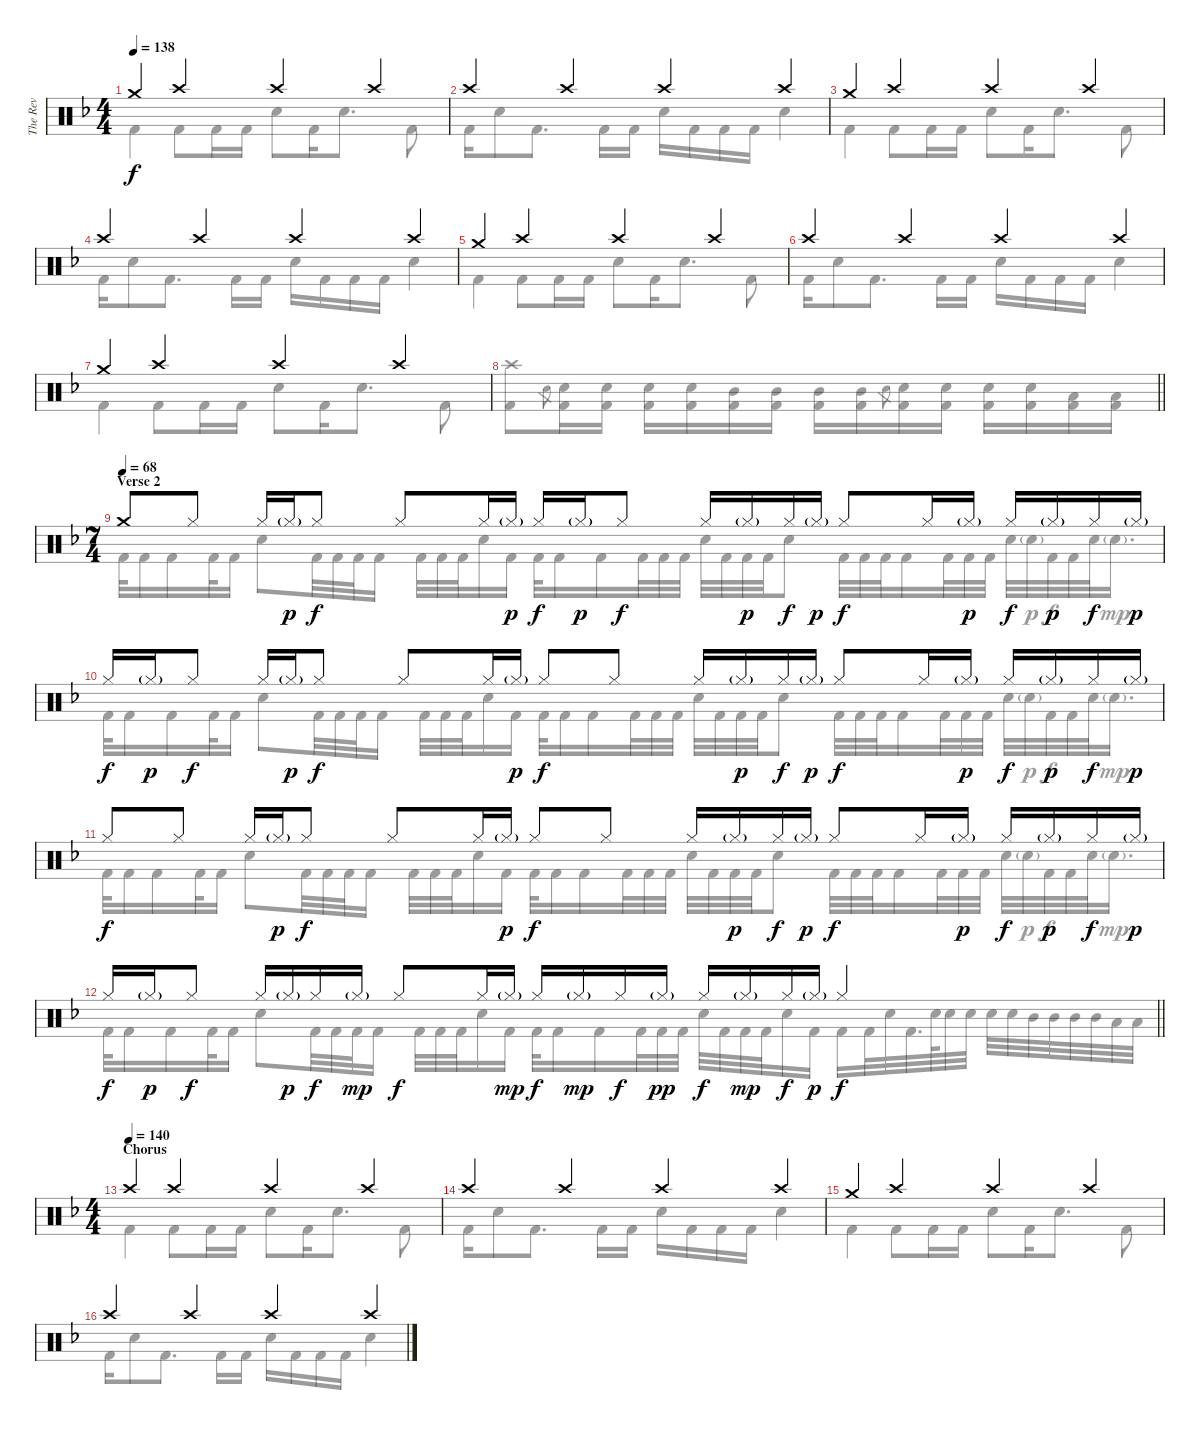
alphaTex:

\track ("The Rev" "The Rev") {instrument percussion}
\staff {score}
\articulation defaults
\voice
\ts (4 4)
\tempo 138
\clef neutral
\ks dminor "Crash medium (hit)".4{dy f} "Crash high (hit)".4 "Crash high (hit)".4 "Crash high (hit)".4
|
"Crash high (hit)".4 "Crash high (hit)".4 "Crash high (hit)".4 "Crash high (hit)".4 |
"Crash medium (hit)".4 "Crash high (hit)".4 "Crash high (hit)".4 "Crash high (hit)".4 |
"Crash high (hit)".4 "Crash high (hit)".4 "Crash high (hit)".4 "Crash high (hit)".4 |
"Crash medium (hit)".4 "Crash high (hit)".4 "Crash high (hit)".4 "Crash high (hit)".4 |
"Crash high (hit)".4 "Crash high (hit)".4 "Crash high (hit)".4 "Crash high (hit)".4 |
"Crash medium (hit)".4 "Crash high (hit)".4 "Crash high (hit)".4 "Crash high (hit)".4 |
\barLineRight lightlight
|
\ts (7 4)
\section ("" "Verse 2")
\tempo (68)
"Crash medium (hit)".8 "Hi-Hat (closed)".8 "Hi-Hat (closed)".16 "Hi-Hat (closed)"{g}.16{dy p} "Hi-Hat (closed)".8{dy f} "Hi-Hat (closed)".8 "Hi-Hat (closed)".16 "Hi-Hat (closed)"{g}.16{dy p} "Hi-Hat (closed)".16{dy f} "Hi-Hat (closed)"{g}.16{dy p} "Hi-Hat (closed)".8{dy f} "Hi-Hat (closed)".16 "Hi-Hat (closed)"{g}.16{dy p} "Hi-Hat (closed)".16{dy f} "Hi-Hat (closed)"{g}.16{dy p} "Hi-Hat (closed)".8{dy f} "Hi-Hat (closed)".16 "Hi-Hat (closed)"{g}.16{dy p} "Hi-Hat (closed)".16{dy f} "Hi-Hat (closed)"{g}.16{dy p} "Hi-Hat (closed)".16{dy f} "Hi-Hat (closed)"{g}.16{dy p} |
"Hi-Hat (closed)".16{dy f} "Hi-Hat (closed)"{g}.16{dy p} "Hi-Hat (closed)".8{dy f} "Hi-Hat (closed)".16 "Hi-Hat (closed)"{g}.16{dy p} "Hi-Hat (closed)".8{dy f} "Hi-Hat (closed)".8 "Hi-Hat (closed)".16 "Hi-Hat (closed)"{g}.16{dy p} "Hi-Hat (closed)".8{dy f} "Hi-Hat (closed)".8 "Hi-Hat (closed)".16 "Hi-Hat (closed)"{g}.16{dy p} "Hi-Hat (closed)".16{dy f} "Hi-Hat (closed)"{g}.16{dy p} "Hi-Hat (closed)".8{dy f} "Hi-Hat (closed)".16 "Hi-Hat (closed)"{g}.16{dy p} "Hi-Hat (closed)".16{dy f} "Hi-Hat (closed)"{g}.16{dy p} "Hi-Hat (closed)".16{dy f} "Hi-Hat (closed)"{g}.16{dy p} |
"Hi-Hat (closed)".8{dy f} "Hi-Hat (closed)".8 "Hi-Hat (closed)".16 "Hi-Hat (closed)"{g}.16{dy p} "Hi-Hat (closed)".8{dy f} "Hi-Hat (closed)".8 "Hi-Hat (closed)".16 "Hi-Hat (closed)"{g}.16{dy p} "Hi-Hat (closed)".8{dy f} "Hi-Hat (closed)".8 "Hi-Hat (closed)".16 "Hi-Hat (closed)"{g}.16{dy p} "Hi-Hat (closed)".16{dy f} "Hi-Hat (closed)"{g}.16{dy p} "Hi-Hat (closed)".8{dy f} "Hi-Hat (closed)".16 "Hi-Hat (closed)"{g}.16{dy p} "Hi-Hat (closed)".16{dy f} "Hi-Hat (closed)"{g}.16{dy p} "Hi-Hat (closed)".16{dy f} "Hi-Hat (closed)"{g}.16{dy p} |
\barLineRight lightlight "Hi-Hat (closed)".16{dy f} "Hi-Hat (closed)"{g}.16{dy p} "Hi-Hat (closed)".8{dy f} "Hi-Hat (closed)".16 "Hi-Hat (closed)"{g}.16{dy p} "Hi-Hat (closed)".16{dy f} "Hi-Hat (closed)"{g}.16{dy mp} "Hi-Hat (closed)".8{dy f} "Hi-Hat (closed)".16 "Hi-Hat (closed)"{g}.16{dy mp} "Hi-Hat (closed)".16{dy f} "Hi-Hat (closed)"{g}.16{dy mp} "Hi-Hat (closed)".16{dy f} "Hi-Hat (closed)"{g}.16{dy pp} "Hi-Hat (closed)".16{dy f} "Hi-Hat (closed)"{g}.16{dy mp} "Hi-Hat (closed)".16{dy f} "Hi-Hat (closed)"{g}.16{dy p} "Hi-Hat (closed)".2{dy f}
|
\ts (4 4)
\section ("" "Chorus")
\tempo (140)
"Crash high (hit)".4 "Crash high (hit)".4 "Crash high (hit)".4 "Crash high (hit)".4 |
"Crash high (hit)".4 "Crash high (hit)".4 "Crash high (hit)".4 "Crash high (hit)".4 |
"Crash medium (hit)".4 "Crash high (hit)".4 "Crash high (hit)".4 "Crash high (hit)".4 |
"Crash high (hit)".4 "Crash high (hit)".4 "Crash high (hit)".4 "Crash high (hit)".4
\voice
\clef neutral
\ottava regular
\simile none
\ks dminor "Kick (hit) 2".4{dy f} "Kick (hit) 2".8 "Kick (hit) 2".16 "Kick (hit) 2".16 "Electric Snare (hit)".8 "Kick (hit) 2".16 "Electric Snare (hit)".8{d} "Kick (hit) 2".8
|
"Kick (hit) 2".16 "Electric Snare (hit)".8 "Kick (hit) 2".8{d} "Kick (hit) 2".16 "Kick (hit) 2".16 "Electric Snare (hit)".16 "Kick (hit) 2".16 "Kick (hit) 2".16 "Kick (hit) 2".16 "Electric Snare (hit)".4 |
"Kick (hit) 2".4 "Kick (hit) 2".8 "Kick (hit) 2".16 "Kick (hit) 2".16 "Electric Snare (hit)".8 "Kick (hit) 2".16 "Electric Snare (hit)".8{d} "Kick (hit) 2".8 |
"Kick (hit) 2".16 "Electric Snare (hit)".8 "Kick (hit) 2".8{d} "Kick (hit) 2".16 "Kick (hit) 2".16 "Electric Snare (hit)".16 "Kick (hit) 2".16 "Kick (hit) 2".16 "Kick (hit) 2".16 "Electric Snare (hit)".4 |
"Kick (hit) 2".4 "Kick (hit) 2".8 "Kick (hit) 2".16 "Kick (hit) 2".16 "Electric Snare (hit)".8 "Kick (hit) 2".16 "Electric Snare (hit)".8{d} "Kick (hit) 2".8 |
"Kick (hit) 2".16 "Electric Snare (hit)".8 "Kick (hit) 2".8{d} "Kick (hit) 2".16 "Kick (hit) 2".16 "Electric Snare (hit)".16 "Kick (hit) 2".16 "Kick (hit) 2".16 "Kick (hit) 2".16 "Electric Snare (hit)".4 |
"Kick (hit) 2".4 "Kick (hit) 2".8 "Kick (hit) 2".16 "Kick (hit) 2".16 "Electric Snare (hit)".8 "Kick (hit) 2".16 "Electric Snare (hit)".8{d} "Kick (hit) 2".8 |
\barLineRight lightlight
("Crash high (hit)" "Kick (hit) 2").8 "Electric Snare (hit)".8{gr} ("Electric Snare (hit)" "Kick (hit) 2").16 ("Electric Snare (hit)" "Kick (hit) 2").16 ("Electric Snare (hit)" "Kick (hit) 2").16 ("Electric Snare (hit)" "Kick (hit) 2").16 ("Mid Tom (hit)" "Kick (hit) 2").16 ("Mid Tom (hit)" "Kick (hit) 2").16 ("Mid Tom (hit)" "Kick (hit) 2").16 ("Mid Tom (hit)" "Kick (hit) 2").16 "Electric Snare (hit)".8{gr} ("Electric Snare (hit)" "Kick (hit) 2").16 ("Electric Snare (hit)" "Kick (hit) 2").16 ("Electric Snare (hit)" "Kick (hit) 2").16 ("Electric Snare (hit)" "Kick (hit) 2").16 ("Low Tom (hit)" "Kick (hit) 2").16 ("Low Tom (hit)" "Kick (hit) 2").16 |
"Kick (hit) 2".32 "Kick (hit) 2".16 "Kick (hit) 2".16 "Kick (hit) 2".32 "Kick (hit) 2".16 "Electric Snare (hit)".8 "Kick (hit) 2".32 "Kick (hit) 2".32 "Kick (hit) 2".32 "Kick (hit) 2".16 "Kick (hit) 2".32 "Kick (hit) 2".32 "Kick (hit) 2".32 "Electric Snare (hit)".16 "Kick (hit) 2".16 "Kick (hit) 2".32 "Kick (hit) 2".16 "Kick (hit) 2".16 "Kick (hit) 2".32 "Kick (hit) 2".32 "Kick (hit) 2".32 "Electric Snare (hit)".32 "Kick (hit) 2".32 "Kick (hit) 2".32 "Kick (hit) 2".32 "Electric Snare (hit)".8 "Kick (hit) 2".32 "Kick (hit) 2".32 "Kick (hit) 2".32 "Kick (hit) 2".16 "Kick (hit) 2".32 "Kick (hit) 2".32 "Kick (hit) 2".32 "Electric Snare (hit)".32 "Electric Snare (hit)"{g}.32{dy p} "Kick (hit) 2".32{dy f} "Kick (hit) 2".32 "Electric Snare (hit)".32 "Electric Snare (hit)"{g}.16{d dy mp} |
"Kick (hit) 2".32{dy f} "Kick (hit) 2".16 "Kick (hit) 2".16 "Kick (hit) 2".32 "Kick (hit) 2".16 "Electric Snare (hit)".8 "Kick (hit) 2".32 "Kick (hit) 2".32 "Kick (hit) 2".32 "Kick (hit) 2".16 "Kick (hit) 2".32 "Kick (hit) 2".32 "Kick (hit) 2".32 "Electric Snare (hit)".16 "Kick (hit) 2".16 "Kick (hit) 2".32 "Kick (hit) 2".16 "Kick (hit) 2".16 "Kick (hit) 2".32 "Kick (hit) 2".32 "Kick (hit) 2".32 "Electric Snare (hit)".32 "Kick (hit) 2".32 "Kick (hit) 2".32 "Kick (hit) 2".32 "Electric Snare (hit)".8 "Kick (hit) 2".32 "Kick (hit) 2".32 "Kick (hit) 2".32 "Kick (hit) 2".16 "Kick (hit) 2".32 "Kick (hit) 2".32 "Kick (hit) 2".32 "Electric Snare (hit)".32 "Electric Snare (hit)"{g}.32{dy p} "Kick (hit) 2".32{dy f} "Kick (hit) 2".32 "Electric Snare (hit)".32 "Electric Snare (hit)"{g}.16{d dy mp} |
"Kick (hit) 2".32{dy f} "Kick (hit) 2".16 "Kick (hit) 2".16 "Kick (hit) 2".32 "Kick (hit) 2".16 "Electric Snare (hit)".8 "Kick (hit) 2".32 "Kick (hit) 2".32 "Kick (hit) 2".32 "Kick (hit) 2".16 "Kick (hit) 2".32 "Kick (hit) 2".32 "Kick (hit) 2".32 "Electric Snare (hit)".16 "Kick (hit) 2".16 "Kick (hit) 2".32 "Kick (hit) 2".16 "Kick (hit) 2".16 "Kick (hit) 2".32 "Kick (hit) 2".32 "Kick (hit) 2".32 "Electric Snare (hit)".32 "Kick (hit) 2".32 "Kick (hit) 2".32 "Kick (hit) 2".32 "Electric Snare (hit)".8 "Kick (hit) 2".32 "Kick (hit) 2".32 "Kick (hit) 2".32 "Kick (hit) 2".16 "Kick (hit) 2".32 "Kick (hit) 2".32 "Kick (hit) 2".32 "Electric Snare (hit)".32 "Electric Snare (hit)"{g}.32{dy p} "Kick (hit) 2".32{dy f} "Kick (hit) 2".32 "Electric Snare (hit)".32 "Electric Snare (hit)"{g}.16{d dy mp} |
\barLineRight lightlight "Kick (hit) 2".32{dy f} "Kick (hit) 2".16 "Kick (hit) 2".16 "Kick (hit) 2".32 "Kick (hit) 2".16 "Electric Snare (hit)".8 "Kick (hit) 2".32 "Kick (hit) 2".32 "Kick (hit) 2".32 "Kick (hit) 2".16 "Kick (hit) 2".32 "Kick (hit) 2".32 "Kick (hit) 2".32 "Electric Snare (hit)".16 "Kick (hit) 2".16 "Kick (hit) 2".32 "Kick (hit) 2".16 "Kick (hit) 2".16 "Kick (hit) 2".32 "Kick (hit) 2".32 "Kick (hit) 2".32 "Electric Snare (hit)".32 "Kick (hit) 2".32 "Kick (hit) 2".32 "Kick (hit) 2".32 "Electric Snare (hit)".16 "Kick (hit) 2".16 "Kick (hit) 2".16 "Kick (hit) 2".32 "Electric Snare (hit)".32 "Kick (hit) 2".32{d} "Electric Snare (hit)".64 "Electric Snare (hit)".32 "Electric Snare (hit)".32 "Electric Snare (hit)".32 "Electric Snare (hit)".32 "Mid Tom (hit)".32 "Mid Tom (hit)".32 "Mid Tom (hit)".32 "Mid Tom (hit)".32 "Low Tom (hit)".32 "Low Tom (hit)".32
|
"Kick (hit) 2".4 "Kick (hit) 2".8 "Kick (hit) 2".16 "Kick (hit) 2".16 "Electric Snare (hit)".8 "Kick (hit) 2".16 "Electric Snare (hit)".8{d} "Kick (hit) 2".8 |
"Kick (hit) 2".16 "Electric Snare (hit)".8 "Kick (hit) 2".8{d} "Kick (hit) 2".16 "Kick (hit) 2".16 "Electric Snare (hit)".16 "Kick (hit) 2".16 "Kick (hit) 2".16 "Kick (hit) 2".16 "Electric Snare (hit)".4 |
"Kick (hit) 2".4 "Kick (hit) 2".8 "Kick (hit) 2".16 "Kick (hit) 2".16 "Electric Snare (hit)".8 "Kick (hit) 2".16 "Electric Snare (hit)".8{d} "Kick (hit) 2".8 |
"Kick (hit) 2".16 "Electric Snare (hit)".8 "Kick (hit) 2".8{d} "Kick (hit) 2".16 "Kick (hit) 2".16 "Electric Snare (hit)".16 "Kick (hit) 2".16 "Kick (hit) 2".16 "Kick (hit) 2".16 "Electric Snare (hit)".4
